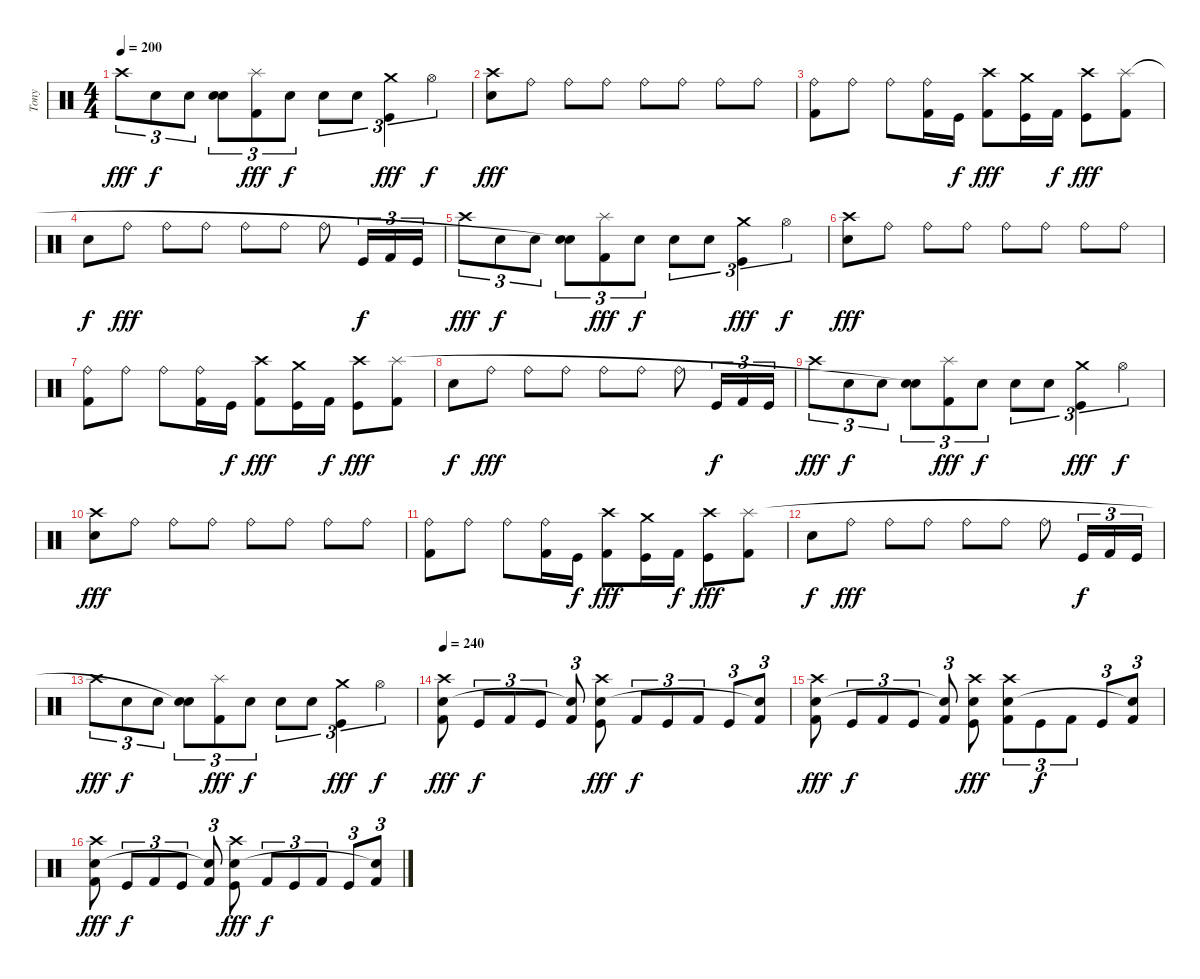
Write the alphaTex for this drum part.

\track ("Tony" "Tony") {instrument percussion}
\staff {score}
\articulation defaults
\ts (4 4)
\tempo 200
\clef neutral
\ks c "Crash high (hit)".8{tu (3 2) dy fff} "Snare (hit) 2".8{tu (3 2) dy f} "Snare (hit) 2".8{tu (3 2)}
("Snare (hit) 2" "Snare (hit)"{t}).8{tu (3 2)} ("Kick (hit) 2" "Splash (hit)").8{tu (3 2) dy fff} "Snare (hit) 2".8{tu (3 2) dy f} "Snare (hit) 2".8{tu (3 2)} "Snare (hit) 2".8{tu (3 2)} ("Kick (hit)" "Crash medium (hit)").4{tu (3 2) dy fff} "Hi-Hat (open)".4{tu (3 2) dy f} |
("Snare (hit) 2" "Crash high (hit)").8{dy fff} "Ride (bell)".8 "Ride (bell)".8 "Ride (bell)".8 "Ride (bell)".8 "Ride (bell)".8 "Ride (bell)".8 "Ride (bell)".8 |
("Kick (hit) 2" "Ride (bell)").8 "Ride (bell)".8 "Ride (bell)".8 ("Kick (hit) 2" "Ride (bell)").16 "Kick (hit)".16{dy f} ("Kick (hit) 2" "Crash high (hit)").8{dy fff} ("Kick (hit)" "Crash medium (hit)").16 "Kick (hit) 2".16{dy f} ("Kick (hit)" "Crash high (hit)").8{dy fff} ("Kick (hit) 2" "Splash (hit)").8 |
"Snare (hit) 2".8{dy f} "Ride (bell)".8{dy fff} "Ride (bell)".8 "Ride (bell)".8 "Ride (bell)".8 "Ride (bell)".8 "Ride (bell)".8 "Kick (hit)".16{tu (3 2) dy f} "Kick (hit) 2".16{tu (3 2)} "Kick (hit)".16{tu (3 2)} |
"Crash high (hit)".8{tu (3 2) dy fff} "Snare (hit) 2".8{tu (3 2) dy f} "Snare (hit) 2".8{tu (3 2)} ("Snare (hit) 2" "Snare (hit)"{t}).8{tu (3 2)} ("Kick (hit) 2" "Splash (hit)").8{tu (3 2) dy fff} "Snare (hit) 2".8{tu (3 2) dy f} "Snare (hit) 2".8{tu (3 2)} "Snare (hit) 2".8{tu (3 2)} ("Kick (hit)" "Crash medium (hit)").4{tu (3 2) dy fff} "Hi-Hat (open)".4{tu (3 2) dy f} |
("Snare (hit) 2" "Crash high (hit)").8{dy fff} "Ride (bell)".8 "Ride (bell)".8 "Ride (bell)".8 "Ride (bell)".8 "Ride (bell)".8 "Ride (bell)".8 "Ride (bell)".8 |
("Kick (hit) 2" "Ride (bell)").8 "Ride (bell)".8 "Ride (bell)".8 ("Kick (hit) 2" "Ride (bell)").16 "Kick (hit)".16{dy f} ("Kick (hit) 2" "Crash high (hit)").8{dy fff} ("Kick (hit)" "Crash medium (hit)").16 "Kick (hit) 2".16{dy f} ("Kick (hit)" "Crash high (hit)").8{dy fff} ("Kick (hit) 2" "Splash (hit)").8 |
"Snare (hit) 2".8{dy f} "Ride (bell)".8{dy fff} "Ride (bell)".8 "Ride (bell)".8 "Ride (bell)".8 "Ride (bell)".8 "Ride (bell)".8 "Kick (hit)".16{tu (3 2) dy f} "Kick (hit) 2".16{tu (3 2)} "Kick (hit)".16{tu (3 2)} |
"Crash high (hit)".8{tu (3 2) dy fff} "Snare (hit) 2".8{tu (3 2) dy f} "Snare (hit) 2".8{tu (3 2)} ("Snare (hit) 2" "Snare (hit)"{t}).8{tu (3 2)} ("Kick (hit) 2" "Splash (hit)").8{tu (3 2) dy fff} "Snare (hit) 2".8{tu (3 2) dy f} "Snare (hit) 2".8{tu (3 2)} "Snare (hit) 2".8{tu (3 2)} ("Kick (hit)" "Crash medium (hit)").4{tu (3 2) dy fff} "Hi-Hat (open)".4{tu (3 2) dy f} |
("Snare (hit) 2" "Crash high (hit)").8{dy fff} "Ride (bell)".8 "Ride (bell)".8 "Ride (bell)".8 "Ride (bell)".8 "Ride (bell)".8 "Ride (bell)".8 "Ride (bell)".8 |
("Kick (hit) 2" "Ride (bell)").8 "Ride (bell)".8 "Ride (bell)".8 ("Kick (hit) 2" "Ride (bell)").16 "Kick (hit)".16{dy f} ("Kick (hit) 2" "Crash high (hit)").8{dy fff} ("Kick (hit)" "Crash medium (hit)").16 "Kick (hit) 2".16{dy f} ("Kick (hit)" "Crash high (hit)").8{dy fff} ("Kick (hit) 2" "Splash (hit)").8 |
"Snare (hit) 2".8{dy f} "Ride (bell)".8{dy fff} "Ride (bell)".8 "Ride (bell)".8 "Ride (bell)".8 "Ride (bell)".8 "Ride (bell)".8 "Kick (hit)".16{tu (3 2) dy f} "Kick (hit) 2".16{tu (3 2)} "Kick (hit)".16{tu (3 2)} |
"Crash high (hit)".8{tu (3 2) dy fff} "Snare (hit) 2".8{tu (3 2) dy f} "Snare (hit) 2".8{tu (3 2)} ("Snare (hit) 2" "Snare (hit)"{t}).8{tu (3 2)} ("Kick (hit) 2" "Splash (hit)").8{tu (3 2) dy fff} "Snare (hit) 2".8{tu (3 2) dy f} "Snare (hit) 2".8{tu (3 2)} "Snare (hit) 2".8{tu (3 2)} ("Kick (hit)" "Crash medium (hit)").4{tu (3 2) dy fff} "Hi-Hat (open)".4{tu (3 2) dy f} |
\tempo 240
("Kick (hit) 2" "Snare (hit) 2" "Crash high (hit)").8{dy fff} "Kick (hit)".8{tu (3 2) dy f} "Kick (hit) 2".8{tu (3 2)} "Kick (hit)".8{tu (3 2)} ("Kick (hit) 2" "Snare (hit)"{t}).8{tu (3 2)} ("Kick (hit)" "Snare (hit) 2" "Crash high (hit)").8{dy fff} "Kick (hit) 2".8{tu (3 2) dy f} "Kick (hit)".8{tu (3 2)} "Kick (hit) 2".8{tu (3 2)} "Kick (hit)".8{tu (3 2)} ("Kick (hit) 2" "Snare (hit)"{t}).8{tu (3 2)} |
("Kick (hit) 2" "Snare (hit) 2" "Crash high (hit)").8{dy fff} "Kick (hit)".8{tu (3 2) dy f} "Kick (hit) 2".8{tu (3 2)} "Kick (hit)".8{tu (3 2)} ("Kick (hit) 2" "Snare (hit)"{t}).8{tu (3 2)} ("Kick (hit)" "Snare (hit) 2" "Crash high (hit)").8{dy fff} ("Kick (hit) 2" "Snare (hit) 2" "Crash high (hit)").8{tu (3 2)} "Kick (hit)".8{tu (3 2) dy f} "Kick (hit) 2".8{tu (3 2)} "Kick (hit)".8{tu (3 2)} ("Kick (hit) 2" "Snare (hit)"{t}).8{tu (3 2)} |
("Kick (hit) 2" "Snare (hit) 2" "Crash high (hit)").8{dy fff} "Kick (hit)".8{tu (3 2) dy f} "Kick (hit) 2".8{tu (3 2)} "Kick (hit)".8{tu (3 2)} ("Kick (hit) 2" "Snare (hit)"{t}).8{tu (3 2)} ("Kick (hit)" "Snare (hit) 2" "Crash high (hit)").8{dy fff} "Kick (hit) 2".8{tu (3 2) dy f} "Kick (hit)".8{tu (3 2)} "Kick (hit) 2".8{tu (3 2)} "Kick (hit)".8{tu (3 2)} ("Kick (hit) 2" "Snare (hit)"{t}).8{tu (3 2)}
